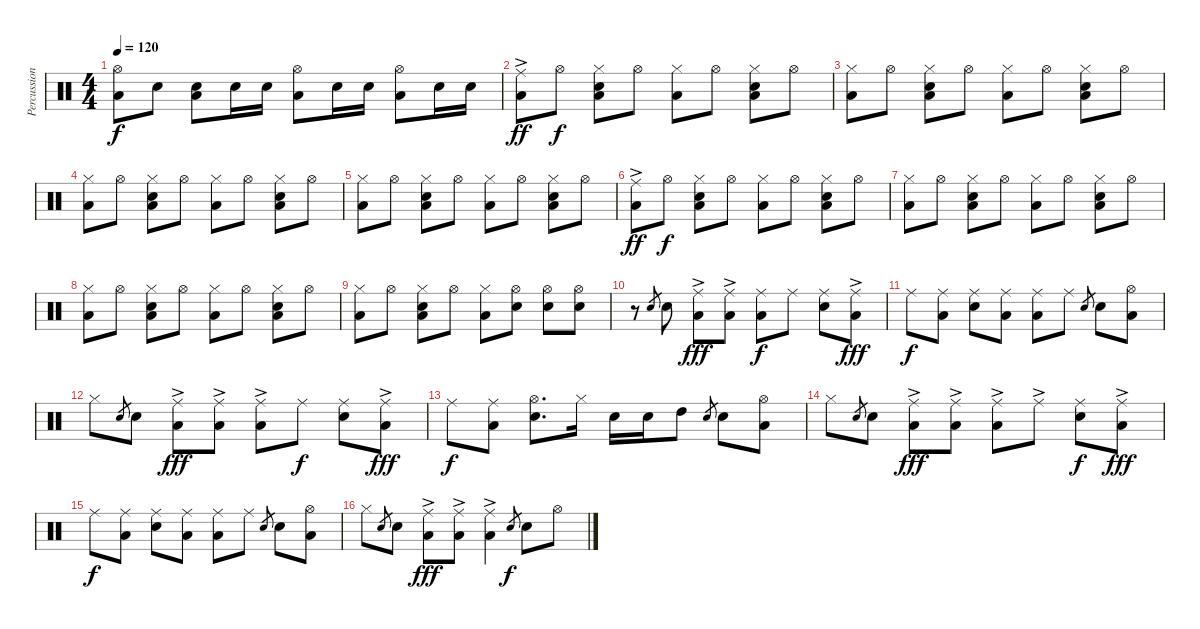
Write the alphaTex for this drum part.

\track ("Percussion" "Percussion") {instrument percussion}
\staff {score}
\articulation defaults
\ts (4 4)
\tempo 120
\clef neutral
\ks c
("Hi-Hat (open)" "Low Floor Tom (hit)").8{dy f} "Snare (hit) 2".8 ("Snare (hit) 2" "Low Floor Tom (hit)").8 "Snare (hit) 2".16 "Snare (hit) 2".16 ("Hi-Hat (open)" "Low Floor Tom (hit)").8 "Snare (hit) 2".16 "Snare (hit) 2".16 ("Hi-Hat (open)" "Low Floor Tom (hit)").8 "Snare (hit) 2".16 "Snare (hit) 2".16 |
("Ride (middle)"{ac} "Low Floor Tom (hit)").8{dy ff} "Hi-Hat (open)".8{dy f} ("Hi-Hat (closed)" "Snare (hit) 2" "Low Floor Tom (hit)").8 "Hi-Hat (open)".8 ("Hi-Hat (closed)" "Low Floor Tom (hit)").8 "Hi-Hat (open)".8 ("Hi-Hat (closed)" "Snare (hit) 2" "Low Floor Tom (hit)").8 "Hi-Hat (open)".8 |
("Hi-Hat (closed)" "Low Floor Tom (hit)").8 "Hi-Hat (open)".8 ("Hi-Hat (closed)" "Snare (hit) 2" "Low Floor Tom (hit)").8 "Hi-Hat (open)".8 ("Hi-Hat (closed)" "Low Floor Tom (hit)").8 "Hi-Hat (open)".8 ("Hi-Hat (closed)" "Snare (hit) 2" "Low Floor Tom (hit)").8 "Hi-Hat (open)".8 |
("Hi-Hat (closed)" "Low Floor Tom (hit)").8 "Hi-Hat (open)".8 ("Hi-Hat (closed)" "Snare (hit) 2" "Low Floor Tom (hit)").8 "Hi-Hat (open)".8 ("Hi-Hat (closed)" "Low Floor Tom (hit)").8 "Hi-Hat (open)".8 ("Hi-Hat (closed)" "Snare (hit) 2" "Low Floor Tom (hit)").8 "Hi-Hat (open)".8 |
("Hi-Hat (closed)" "Low Floor Tom (hit)").8 "Hi-Hat (open)".8 ("Hi-Hat (closed)" "Snare (hit) 2" "Low Floor Tom (hit)").8 "Hi-Hat (open)".8 ("Hi-Hat (closed)" "Low Floor Tom (hit)").8 "Hi-Hat (open)".8 ("Hi-Hat (closed)" "Snare (hit) 2" "Low Floor Tom (hit)").8 "Hi-Hat (open)".8 |
("Ride (middle)"{ac} "Low Floor Tom (hit)").8{dy ff} "Hi-Hat (open)".8{dy f} ("Hi-Hat (closed)" "Snare (hit) 2" "Low Floor Tom (hit)").8 "Hi-Hat (open)".8 ("Hi-Hat (closed)" "Low Floor Tom (hit)").8 "Hi-Hat (open)".8 ("Hi-Hat (closed)" "Snare (hit) 2" "Low Floor Tom (hit)").8 "Hi-Hat (open)".8 |
("Hi-Hat (closed)" "Low Floor Tom (hit)").8 "Hi-Hat (open)".8 ("Hi-Hat (closed)" "Snare (hit) 2" "Low Floor Tom (hit)").8 "Hi-Hat (open)".8 ("Hi-Hat (closed)" "Low Floor Tom (hit)").8 "Hi-Hat (open)".8 ("Hi-Hat (closed)" "Snare (hit) 2" "Low Floor Tom (hit)").8 "Hi-Hat (open)".8 |
("Hi-Hat (closed)" "Low Floor Tom (hit)").8 "Hi-Hat (open)".8 ("Hi-Hat (closed)" "Snare (hit) 2" "Low Floor Tom (hit)").8 "Hi-Hat (open)".8 ("Hi-Hat (closed)" "Low Floor Tom (hit)").8 "Hi-Hat (open)".8 ("Hi-Hat (closed)" "Snare (hit) 2" "Low Floor Tom (hit)").8 "Hi-Hat (open)".8 |
("Hi-Hat (closed)" "Low Floor Tom (hit)").8 "Hi-Hat (open)".8 ("Hi-Hat (closed)" "Snare (hit) 2" "Low Floor Tom (hit)").8 "Hi-Hat (open)".8 ("Hi-Hat (closed)" "Low Floor Tom (hit)").8 ("Hi-Hat (open)" "Snare (hit) 2").8 ("Hi-Hat (open)" "Snare (hit) 2").8 ("Hi-Hat (open)" "Snare (hit) 2").8 |
r.8 "Snare (hit) 2".8{gr} "Snare (hit) 2".8 ("Ride (middle)"{ac} "Low Floor Tom (hit)").8{dy fff} ("Ride (middle)"{ac} "Low Floor Tom (hit)").8 ("Ride (middle)" "Low Floor Tom (hit)").8{dy f} "Ride (middle)".8 ("Ride (middle)" "Snare (hit) 2").8 ("Ride (middle)"{ac} "Low Floor Tom (hit)").8{dy fff} |
"Ride (middle)".8{dy f} ("Ride (middle)" "Low Floor Tom (hit)").8 ("Ride (middle)" "Snare (hit) 2").8 ("Ride (middle)" "Low Floor Tom (hit)").8 ("Ride (middle)" "Low Floor Tom (hit)").8 "Ride (middle)".8 "Snare (hit) 2".8{gr} "Snare (hit) 2".8 ("Hi-Hat (open)" "Low Floor Tom (hit)").8 |
"Hi-Hat (closed)".8 "Snare (hit) 2".8{gr} "Snare (hit) 2".8 ("Ride (middle)"{ac} "Low Floor Tom (hit)").8{dy fff} ("Ride (middle)"{ac} "Low Floor Tom (hit)").8 ("Ride (middle)"{ac} "Low Floor Tom (hit)").8 "Ride (middle)".8{dy f} ("Ride (middle)" "Snare (hit) 2").8 ("Ride (middle)"{ac} "Low Floor Tom (hit)").8{dy fff} |
"Ride (middle)".8{dy f} ("Ride (middle)" "Low Floor Tom (hit)").8 ("Hi-Hat (open)" "Snare (hit) 2").8{d} "Hi-Hat (closed)".16 "Snare (hit) 2".16 "Snare (hit) 2".16 "High Tom (hit)".8 "Snare (hit) 2".8{gr} "Snare (hit) 2".8 ("Hi-Hat (open)" "Low Floor Tom (hit)").8 |
"Hi-Hat (closed)".8 "Snare (hit) 2".8{gr} "Snare (hit) 2".8 ("Ride (middle)"{ac} "Low Floor Tom (hit)").8{dy fff} ("Ride (middle)"{ac} "Low Floor Tom (hit)").8 ("Ride (middle)"{ac} "Low Floor Tom (hit)").8 "Ride (middle)"{ac}.8 ("Ride (middle)" "Snare (hit) 2").8{dy f} ("Ride (middle)"{ac} "Low Floor Tom (hit)").8{dy fff} |
"Ride (middle)".8{dy f} ("Ride (middle)" "Low Floor Tom (hit)").8 ("Ride (middle)" "Snare (hit) 2").8 ("Ride (middle)" "Low Floor Tom (hit)").8 ("Ride (middle)" "Low Floor Tom (hit)").8 "Ride (middle)".8 "Snare (hit) 2".8{gr} "Snare (hit) 2".8 ("Hi-Hat (open)" "Low Floor Tom (hit)").8 |
"Hi-Hat (closed)".8 "Snare (hit) 2".8{gr} "Snare (hit) 2".8 ("Ride (middle)"{ac} "Low Floor Tom (hit)").8{dy fff} ("Ride (middle)"{ac} "Low Floor Tom (hit)").8 ("Ride (middle)"{ac} "Low Floor Tom (hit)").4 "Snare (hit) 2".8{gr dy f} "Snare (hit) 2".8 "Hi-Hat (open)".8
